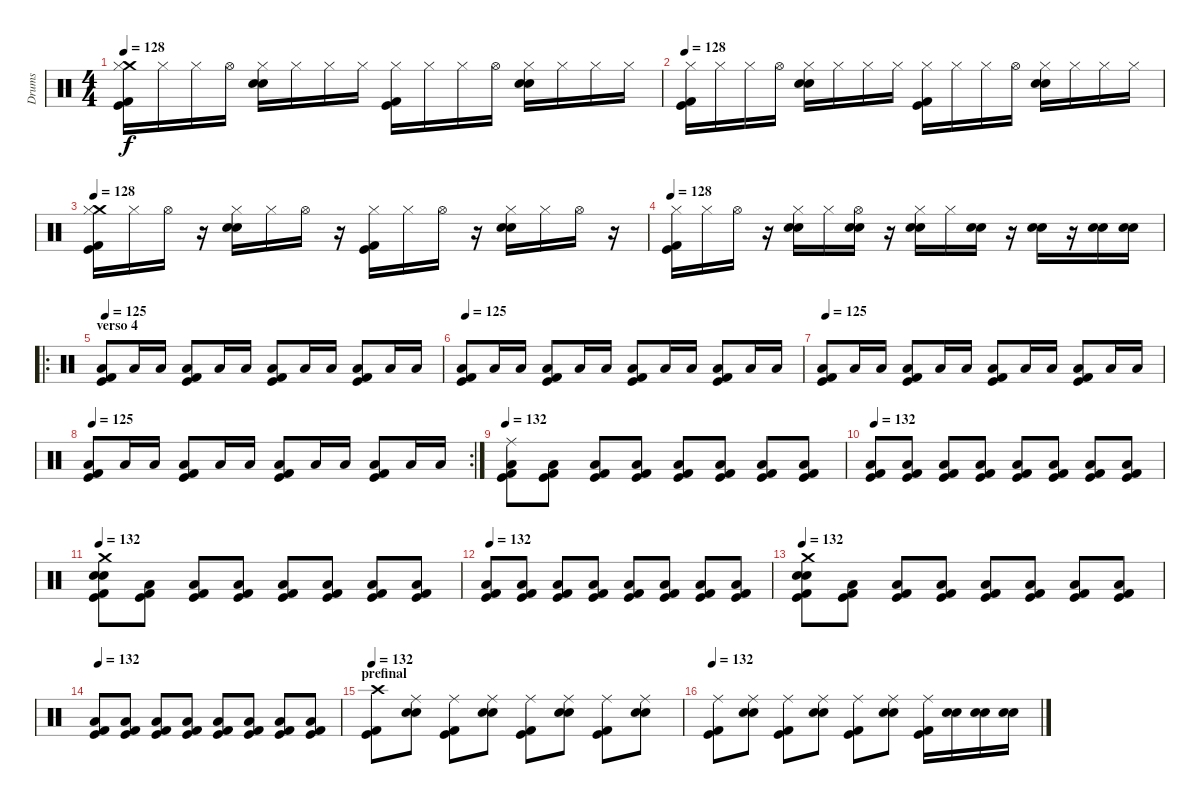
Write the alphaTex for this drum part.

\track ("Drums" "Drums") {instrument percussion}
\staff {score}
\articulation defaults
\ts (4 4)
\tempo 128
\clef neutral
\ks c
("Crash medium (hit)" "Hi-Hat (closed)" "Kick (hit) 2" "Kick (hit)").16{dy f} "Hi-Hat (closed)".16 "Hi-Hat (closed)".16 "Hi-Hat (open)".16 ("Hi-Hat (closed)" "Snare (hit) 2" "Snare (hit) 2").16 "Hi-Hat (closed)".16 "Hi-Hat (closed)".16 "Hi-Hat (closed)".16 ("Hi-Hat (closed)" "Kick (hit) 2" "Kick (hit)").16 "Hi-Hat (closed)".16 "Hi-Hat (closed)".16 "Hi-Hat (open)".16 ("Hi-Hat (closed)" "Snare (hit) 2" "Snare (hit) 2").16 "Hi-Hat (closed)".16 "Hi-Hat (closed)".16 "Hi-Hat (closed)".16 |
\tempo 128
("Hi-Hat (closed)" "Kick (hit) 2" "Kick (hit)").16 "Hi-Hat (closed)".16 "Hi-Hat (closed)".16 "Hi-Hat (open)".16 ("Hi-Hat (closed)" "Snare (hit) 2" "Snare (hit) 2").16 "Hi-Hat (closed)".16 "Hi-Hat (closed)".16 "Hi-Hat (closed)".16 ("Hi-Hat (closed)" "Kick (hit) 2" "Kick (hit)").16 "Hi-Hat (closed)".16 "Hi-Hat (closed)".16 "Hi-Hat (open)".16 ("Hi-Hat (closed)" "Snare (hit) 2" "Snare (hit) 2").16 "Hi-Hat (closed)".16 "Hi-Hat (closed)".16 "Hi-Hat (closed)".16 |
\tempo 128
("Crash medium (hit)" "Hi-Hat (closed)" "Kick (hit) 2" "Kick (hit)").16 "Hi-Hat (closed)".16 "Hi-Hat (open)".16 r.16 ("Hi-Hat (closed)" "Snare (hit) 2" "Snare (hit) 2").16 "Hi-Hat (closed)".16 "Hi-Hat (open)".16 r.16 ("Hi-Hat (closed)" "Kick (hit) 2" "Kick (hit)").16 "Hi-Hat (closed)".16 "Hi-Hat (open)".16 r.16 ("Hi-Hat (closed)" "Snare (hit) 2" "Snare (hit) 2").16 "Hi-Hat (closed)".16 "Hi-Hat (open)".16 r.16 |
\tempo 128
("Hi-Hat (closed)" "Kick (hit) 2" "Kick (hit)").16 "Hi-Hat (closed)".16 "Hi-Hat (open)".16 r.16 ("Hi-Hat (closed)" "Snare (hit) 2" "Snare (hit) 2").16 "Hi-Hat (closed)".16 ("Hi-Hat (open)" "Snare (hit) 2" "Snare (hit) 2").16 r.16 ("Hi-Hat (closed)" "Snare (hit) 2" "Snare (hit) 2").16 "Hi-Hat (closed)".16 ("Snare (hit) 2" "Snare (hit) 2").16 r.16 ("Snare (hit) 2" "Snare (hit) 2").16 r.16 ("Snare (hit) 2" "Snare (hit) 2").16 ("Snare (hit) 2" "Snare (hit) 2").16 |
\ro
\section ("" "verso 4")
\tempo 125
("Low Tom (hit)" "Kick (hit) 2" "Kick (hit)").8 "Low Tom (hit)".16 "Low Tom (hit)".16 ("Low Tom (hit)" "Kick (hit) 2" "Kick (hit)").8 "Low Tom (hit)".16 "Low Tom (hit)".16 ("Low Tom (hit)" "Kick (hit) 2" "Kick (hit)").8 "Low Tom (hit)".16 "Low Tom (hit)".16 ("Low Tom (hit)" "Kick (hit) 2" "Kick (hit)").8 "Low Tom (hit)".16 "Low Tom (hit)".16 |
\tempo 125
("Low Tom (hit)" "Kick (hit) 2" "Kick (hit)").8 "Low Tom (hit)".16 "Low Tom (hit)".16 ("Low Tom (hit)" "Kick (hit) 2" "Kick (hit)").8 "Low Tom (hit)".16 "Low Tom (hit)".16 ("Low Tom (hit)" "Kick (hit) 2" "Kick (hit)").8 "Low Tom (hit)".16 "Low Tom (hit)".16 ("Low Tom (hit)" "Kick (hit) 2" "Kick (hit)").8 "Low Tom (hit)".16 "Low Tom (hit)".16 |
\tempo 125
("Low Tom (hit)" "Kick (hit) 2" "Kick (hit)").8 "Low Tom (hit)".16 "Low Tom (hit)".16 ("Low Tom (hit)" "Kick (hit) 2" "Kick (hit)").8 "Low Tom (hit)".16 "Low Tom (hit)".16 ("Low Tom (hit)" "Kick (hit) 2" "Kick (hit)").8 "Low Tom (hit)".16 "Low Tom (hit)".16 ("Low Tom (hit)" "Kick (hit) 2" "Kick (hit)").8 "Low Tom (hit)".16 "Low Tom (hit)".16 |
\rc 2
\tempo 125
("Low Tom (hit)" "Kick (hit) 2" "Kick (hit)").8 "Low Tom (hit)".16 "Low Tom (hit)".16 ("Low Tom (hit)" "Kick (hit) 2" "Kick (hit)").8 "Low Tom (hit)".16 "Low Tom (hit)".16 ("Low Tom (hit)" "Kick (hit) 2" "Kick (hit)").8 "Low Tom (hit)".16 "Low Tom (hit)".16 ("Low Tom (hit)" "Kick (hit) 2" "Kick (hit)").8 "Low Tom (hit)".16 "Low Tom (hit)".16 |
\tempo 132
("Ride (middle)" "Low Tom (hit)" "Kick (hit) 2" "Kick (hit)").8 ("Low Tom (hit)" "Kick (hit) 2" "Kick (hit)").8 ("Low Tom (hit)" "Kick (hit) 2" "Kick (hit)").8 ("Low Tom (hit)" "Kick (hit) 2" "Kick (hit)").8 ("Low Tom (hit)" "Kick (hit) 2" "Kick (hit)").8 ("Low Tom (hit)" "Kick (hit) 2" "Kick (hit)").8 ("Low Tom (hit)" "Kick (hit) 2" "Kick (hit)").8 ("Low Tom (hit)" "Kick (hit) 2" "Kick (hit)").8 |
\tempo 132
("Low Tom (hit)" "Kick (hit) 2" "Kick (hit)").8 ("Low Tom (hit)" "Kick (hit) 2" "Kick (hit)").8 ("Low Tom (hit)" "Kick (hit) 2" "Kick (hit)").8 ("Low Tom (hit)" "Kick (hit) 2" "Kick (hit)").8 ("Low Tom (hit)" "Kick (hit) 2" "Kick (hit)").8 ("Low Tom (hit)" "Kick (hit) 2" "Kick (hit)").8 ("Low Tom (hit)" "Kick (hit) 2" "Kick (hit)").8 ("Low Tom (hit)" "Kick (hit) 2" "Kick (hit)").8 |
\tempo 132
("Crash medium (hit)" "Snare (hit) 2" "Snare (hit) 2" "Kick (hit) 2" "Kick (hit)").8 ("Low Tom (hit)" "Kick (hit) 2" "Kick (hit)").8 ("Low Tom (hit)" "Kick (hit) 2" "Kick (hit)").8 ("Low Tom (hit)" "Kick (hit) 2" "Kick (hit)").8 ("Low Tom (hit)" "Kick (hit) 2" "Kick (hit)").8 ("Low Tom (hit)" "Kick (hit) 2" "Kick (hit)").8 ("Low Tom (hit)" "Kick (hit) 2" "Kick (hit)").8 ("Low Tom (hit)" "Kick (hit) 2" "Kick (hit)").8 |
\tempo 132
("Low Tom (hit)" "Kick (hit) 2" "Kick (hit)").8 ("Low Tom (hit)" "Kick (hit) 2" "Kick (hit)").8 ("Low Tom (hit)" "Kick (hit) 2" "Kick (hit)").8 ("Low Tom (hit)" "Kick (hit) 2" "Kick (hit)").8 ("Low Tom (hit)" "Kick (hit) 2" "Kick (hit)").8 ("Low Tom (hit)" "Kick (hit) 2" "Kick (hit)").8 ("Low Tom (hit)" "Kick (hit) 2" "Kick (hit)").8 ("Low Tom (hit)" "Kick (hit) 2" "Kick (hit)").8 |
\tempo 132
("Crash medium (hit)" "Snare (hit) 2" "Snare (hit) 2" "Kick (hit) 2" "Kick (hit)").8 ("Low Tom (hit)" "Kick (hit) 2" "Kick (hit)").8 ("Low Tom (hit)" "Kick (hit) 2" "Kick (hit)").8 ("Low Tom (hit)" "Kick (hit) 2" "Kick (hit)").8 ("Low Tom (hit)" "Kick (hit) 2" "Kick (hit)").8 ("Low Tom (hit)" "Kick (hit) 2" "Kick (hit)").8 ("Low Tom (hit)" "Kick (hit) 2" "Kick (hit)").8 ("Low Tom (hit)" "Kick (hit) 2" "Kick (hit)").8 |
\tempo 132
("Low Tom (hit)" "Kick (hit) 2" "Kick (hit)").8 ("Low Tom (hit)" "Kick (hit) 2" "Kick (hit)").8 ("Low Tom (hit)" "Kick (hit) 2" "Kick (hit)").8 ("Low Tom (hit)" "Kick (hit) 2" "Kick (hit)").8 ("Low Tom (hit)" "Kick (hit) 2" "Kick (hit)").8 ("Low Tom (hit)" "Kick (hit) 2" "Kick (hit)").8 ("Low Tom (hit)" "Kick (hit) 2" "Kick (hit)").8 ("Low Tom (hit)" "Kick (hit) 2" "Kick (hit)").8 |
\section ("" "prefinal")
\tempo 132
("Crash high (hit)" "Kick (hit) 2" "Kick (hit)").8 ("Ride (middle)" "Snare (hit) 2" "Snare (hit) 2").8 ("Ride (middle)" "Kick (hit) 2" "Kick (hit)").8 ("Ride (middle)" "Snare (hit) 2" "Snare (hit) 2").8 ("Ride (middle)" "Kick (hit) 2" "Kick (hit)").8 ("Ride (middle)" "Snare (hit) 2" "Snare (hit) 2").8 ("Ride (middle)" "Kick (hit) 2" "Kick (hit)").8 ("Ride (middle)" "Snare (hit) 2" "Snare (hit) 2").8 |
\tempo 132
("Ride (middle)" "Kick (hit) 2" "Kick (hit)").8 ("Ride (middle)" "Snare (hit) 2" "Snare (hit) 2").8 ("Ride (middle)" "Kick (hit) 2" "Kick (hit)").8 ("Ride (middle)" "Snare (hit) 2" "Snare (hit) 2").8 ("Ride (middle)" "Kick (hit) 2" "Kick (hit)").8 ("Ride (middle)" "Snare (hit) 2" "Snare (hit) 2").8 ("Ride (middle)" "Kick (hit) 2" "Kick (hit)").16 ("Snare (hit) 2" "Snare (hit) 2").16 ("Snare (hit) 2" "Snare (hit) 2").16 ("Snare (hit) 2" "Snare (hit) 2").16
